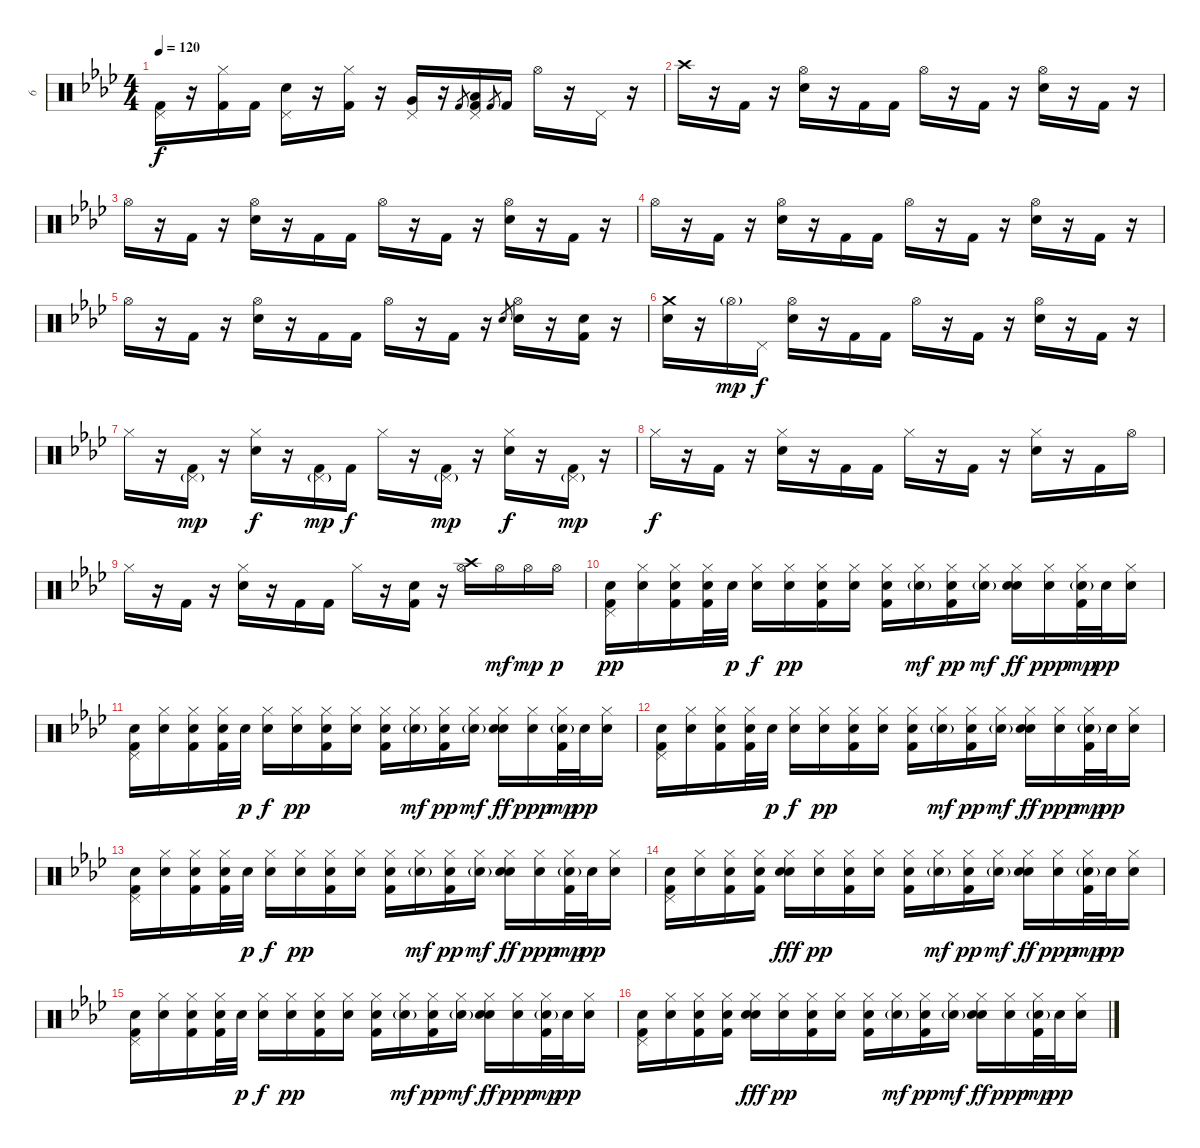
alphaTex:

\track ("6" "6") {instrument percussion}
\staff {score}
\articulation defaults
\ts (4 4)
\tempo 120
\clef neutral
\ks fminor
("Pedal Hi-Hat (hit)" "Kick (hit) 2").16{dy f} r.16 ("Hi-Hat (closed)" "Kick (hit) 2").16 "Kick (hit) 2".16 ("Pedal Hi-Hat (hit)" "Electric Snare (hit)").16 r.16 ("Hi-Hat (closed)" "Kick (hit) 2").16 r.16 ("Pedal Hi-Hat (hit)" "Very Low Tom (hit)").16 r.16 "Kick (hit) 2".8{gr} ("Pedal Hi-Hat (hit)" "Low Tom (hit)" "Kick (hit) 2").16 "Kick (hit) 2".8{gr} "Kick (hit) 2".16 "Hi-Hat (open)".16 r.16 "Pedal Hi-Hat (hit)".16 r.16 |
\ks ab "Crash high (hit)".16
r.16 "Kick (hit) 2".16 r.16 ("Hi-Hat (open)" "Electric Snare (hit)").16 r.16 "Kick (hit) 2".16 "Kick (hit) 2".16 "Hi-Hat (open)".16 r.16 "Kick (hit) 2".16 r.16 ("Hi-Hat (open)" "Electric Snare (hit)").16 r.16 "Kick (hit) 2".16 r.16 |
"Hi-Hat (open)".16 r.16 "Kick (hit) 2".16 r.16 ("Hi-Hat (open)" "Electric Snare (hit)").16 r.16 "Kick (hit) 2".16 "Kick (hit) 2".16 "Hi-Hat (open)".16 r.16 "Kick (hit) 2".16 r.16 ("Hi-Hat (open)" "Electric Snare (hit)").16 r.16 "Kick (hit) 2".16 r.16 |
"Hi-Hat (open)".16 r.16 "Kick (hit) 2".16 r.16 ("Hi-Hat (open)" "Electric Snare (hit)").16 r.16 "Kick (hit) 2".16 "Kick (hit) 2".16 "Hi-Hat (open)".16 r.16 "Kick (hit) 2".16 r.16 ("Hi-Hat (open)" "Electric Snare (hit)").16 r.16 "Kick (hit) 2".16 r.16 |
"Hi-Hat (open)".16 r.16 "Kick (hit) 2".16 r.16 ("Hi-Hat (open)" "Electric Snare (hit)").16 r.16 "Kick (hit) 2".16 "Kick (hit) 2".16 "Hi-Hat (open)".16 r.16 "Kick (hit) 2".16 r.16 "Electric Snare (hit)".8{gr} ("Hi-Hat (open)" "Electric Snare (hit)").16 r.16 ("Electric Snare (hit)" "Kick (hit) 2").16 r.16 |
("Crash medium (hit)" "Electric Snare (hit)").16 r.16 "Hi-Hat (open)"{g}.16{dy mp} "Pedal Hi-Hat (hit)".16{dy f} ("Hi-Hat (open)" "Electric Snare (hit)").16 r.16 "Kick (hit) 2".16 "Kick (hit) 2".16 "Hi-Hat (open)".16 r.16 "Kick (hit) 2".16 r.16 ("Hi-Hat (open)" "Electric Snare (hit)").16 r.16 "Kick (hit) 2".16 r.16 |
"Hi-Hat (closed)".16 r.16 ("Pedal Hi-Hat (hit)"{g} "Kick (hit) 2").16{dy mp} r.16 ("Hi-Hat (closed)" "Electric Snare (hit)").16{dy f} r.16 ("Pedal Hi-Hat (hit)"{g} "Kick (hit) 2").16{dy mp} "Kick (hit) 2".16{dy f} "Hi-Hat (closed)".16 r.16 ("Pedal Hi-Hat (hit)"{g} "Kick (hit) 2").16{dy mp} r.16 ("Hi-Hat (closed)" "Electric Snare (hit)").16{dy f} r.16 ("Pedal Hi-Hat (hit)"{g} "Kick (hit) 2").16{dy mp} r.16 |
"Hi-Hat (closed)".16{dy f} r.16 "Kick (hit) 2".16 r.16 ("Hi-Hat (closed)" "Electric Snare (hit)").16 r.16 "Kick (hit) 2".16 "Kick (hit) 2".16 "Hi-Hat (closed)".16 r.16 "Kick (hit) 2".16 r.16 ("Hi-Hat (closed)" "Electric Snare (hit)").16 r.16 "Kick (hit) 2".16 "Hi-Hat (open)".16 |
"Hi-Hat (closed)".16 r.16 "Kick (hit) 2".16 r.16 ("Hi-Hat (closed)" "Electric Snare (hit)").16 r.16 "Kick (hit) 2".16 "Kick (hit) 2".16 "Hi-Hat (closed)".16 r.16 ("Electric Snare (hit)" "Kick (hit) 2").16 r.16 ("Hi-Hat (open)" "Crash high (hit)").16 "Hi-Hat (open)".16{dy mf} "Hi-Hat (open)".16{dy mp} "Hi-Hat (open)".16{dy p} |
("Pedal Hi-Hat (hit)" "Electric Snare (hit)" "Kick (hit) 2").16{dy pp} ("Hi-Hat (closed)" "Electric Snare (hit)").16 ("Hi-Hat (closed)" "Electric Snare (hit)" "Kick (hit) 2").16 ("Hi-Hat (closed)" "Electric Snare (hit)" "Kick (hit) 2").32 "Electric Snare (hit)".32{dy p} ("Hi-Hat (closed)" "Electric Snare (hit)").16{dy f} ("Hi-Hat (closed)" "Electric Snare (hit)").16{dy pp} ("Hi-Hat (closed)" "Electric Snare (hit)" "Kick (hit) 2").16 ("Hi-Hat (closed)" "Electric Snare (hit)").16 ("Hi-Hat (closed)" "Electric Snare (hit)" "Kick (hit) 2").16 ("Hi-Hat (closed)" "Electric Snare (hit)"{g}).16{dy mf} ("Hi-Hat (closed)" "Electric Snare (hit)" "Kick (hit) 2").16{dy pp} ("Hi-Hat (closed)" "Electric Snare (hit)"{g}).16{dy mf} ("Hi-Hat (closed)" "Electric Snare (hit)" "Electric Snare (hit)").16{dy ff} ("Hi-Hat (closed)" "Electric Snare (hit)").16{dy ppp} ("Hi-Hat (closed)" "Electric Snare (hit)"{g} "Kick (hit) 2").32{dy mp} "Electric Snare (hit)".32{dy pp} ("Hi-Hat (closed)" "Electric Snare (hit)").16 |
("Pedal Hi-Hat (hit)" "Electric Snare (hit)" "Kick (hit) 2").16 ("Hi-Hat (closed)" "Electric Snare (hit)").16 ("Hi-Hat (closed)" "Electric Snare (hit)" "Kick (hit) 2").16 ("Hi-Hat (closed)" "Electric Snare (hit)" "Kick (hit) 2").32 "Electric Snare (hit)".32{dy p} ("Hi-Hat (closed)" "Electric Snare (hit)").16{dy f} ("Hi-Hat (closed)" "Electric Snare (hit)").16{dy pp} ("Hi-Hat (closed)" "Electric Snare (hit)" "Kick (hit) 2").16 ("Hi-Hat (closed)" "Electric Snare (hit)").16 ("Hi-Hat (closed)" "Electric Snare (hit)" "Kick (hit) 2").16 ("Hi-Hat (closed)" "Electric Snare (hit)"{g}).16{dy mf} ("Hi-Hat (closed)" "Electric Snare (hit)" "Kick (hit) 2").16{dy pp} ("Hi-Hat (closed)" "Electric Snare (hit)"{g}).16{dy mf} ("Hi-Hat (closed)" "Electric Snare (hit)" "Electric Snare (hit)").16{dy ff} ("Hi-Hat (closed)" "Electric Snare (hit)").16{dy ppp} ("Hi-Hat (closed)" "Electric Snare (hit)"{g} "Kick (hit) 2").32{dy mp} "Electric Snare (hit)".32{dy pp} ("Hi-Hat (closed)" "Electric Snare (hit)").16 |
("Pedal Hi-Hat (hit)" "Electric Snare (hit)" "Kick (hit) 2").16 ("Hi-Hat (closed)" "Electric Snare (hit)").16 ("Hi-Hat (closed)" "Electric Snare (hit)" "Kick (hit) 2").16 ("Hi-Hat (closed)" "Electric Snare (hit)" "Kick (hit) 2").32 "Electric Snare (hit)".32{dy p} ("Hi-Hat (closed)" "Electric Snare (hit)").16{dy f} ("Hi-Hat (closed)" "Electric Snare (hit)").16{dy pp} ("Hi-Hat (closed)" "Electric Snare (hit)" "Kick (hit) 2").16 ("Hi-Hat (closed)" "Electric Snare (hit)").16 ("Hi-Hat (closed)" "Electric Snare (hit)" "Kick (hit) 2").16 ("Hi-Hat (closed)" "Electric Snare (hit)"{g}).16{dy mf} ("Hi-Hat (closed)" "Electric Snare (hit)" "Kick (hit) 2").16{dy pp} ("Hi-Hat (closed)" "Electric Snare (hit)"{g}).16{dy mf} ("Hi-Hat (closed)" "Electric Snare (hit)" "Electric Snare (hit)").16{dy ff} ("Hi-Hat (closed)" "Electric Snare (hit)").16{dy ppp} ("Hi-Hat (closed)" "Electric Snare (hit)"{g} "Kick (hit) 2").32{dy mp} "Electric Snare (hit)".32{dy pp} ("Hi-Hat (closed)" "Electric Snare (hit)").16 |
("Pedal Hi-Hat (hit)" "Electric Snare (hit)" "Kick (hit) 2").16 ("Hi-Hat (closed)" "Electric Snare (hit)").16 ("Hi-Hat (closed)" "Electric Snare (hit)" "Kick (hit) 2").16 ("Hi-Hat (closed)" "Electric Snare (hit)" "Kick (hit) 2").32 "Electric Snare (hit)".32{dy p} ("Hi-Hat (closed)" "Electric Snare (hit)").16{dy f} ("Hi-Hat (closed)" "Electric Snare (hit)").16{dy pp} ("Hi-Hat (closed)" "Electric Snare (hit)" "Kick (hit) 2").16 ("Hi-Hat (closed)" "Electric Snare (hit)").16 ("Hi-Hat (closed)" "Electric Snare (hit)" "Kick (hit) 2").16 ("Hi-Hat (closed)" "Electric Snare (hit)"{g}).16{dy mf} ("Hi-Hat (closed)" "Electric Snare (hit)" "Kick (hit) 2").16{dy pp} ("Hi-Hat (closed)" "Electric Snare (hit)"{g}).16{dy mf} ("Hi-Hat (closed)" "Electric Snare (hit)" "Electric Snare (hit)").16{dy ff} ("Hi-Hat (closed)" "Electric Snare (hit)").16{dy ppp} ("Hi-Hat (closed)" "Electric Snare (hit)"{g} "Kick (hit) 2").32{dy mp} "Electric Snare (hit)".32{dy pp} ("Hi-Hat (closed)" "Electric Snare (hit)").16 |
("Pedal Hi-Hat (hit)" "Electric Snare (hit)" "Kick (hit) 2").16 ("Hi-Hat (closed)" "Electric Snare (hit)").16 ("Hi-Hat (closed)" "Electric Snare (hit)" "Kick (hit) 2").16 ("Hi-Hat (closed)" "Electric Snare (hit)" "Kick (hit) 2").16 ("Hi-Hat (closed)" "Electric Snare (hit)" "Electric Snare (hit)").16{dy fff} ("Hi-Hat (closed)" "Electric Snare (hit)").16{dy pp} ("Hi-Hat (closed)" "Electric Snare (hit)" "Kick (hit) 2").16 ("Hi-Hat (closed)" "Electric Snare (hit)").16 ("Hi-Hat (closed)" "Electric Snare (hit)" "Kick (hit) 2").16 ("Hi-Hat (closed)" "Electric Snare (hit)"{g}).16{dy mf} ("Hi-Hat (closed)" "Electric Snare (hit)" "Kick (hit) 2").16{dy pp} ("Hi-Hat (closed)" "Electric Snare (hit)"{g}).16{dy mf} ("Hi-Hat (closed)" "Electric Snare (hit)" "Electric Snare (hit)").16{dy ff} ("Hi-Hat (closed)" "Electric Snare (hit)").16{dy ppp} ("Hi-Hat (closed)" "Electric Snare (hit)"{g} "Kick (hit) 2").32{dy mp} "Electric Snare (hit)".32{dy pp} ("Hi-Hat (closed)" "Electric Snare (hit)").16 |
("Pedal Hi-Hat (hit)" "Electric Snare (hit)" "Kick (hit) 2").16 ("Hi-Hat (closed)" "Electric Snare (hit)").16 ("Hi-Hat (closed)" "Electric Snare (hit)" "Kick (hit) 2").16 ("Hi-Hat (closed)" "Electric Snare (hit)" "Kick (hit) 2").32 "Electric Snare (hit)".32{dy p} ("Hi-Hat (closed)" "Electric Snare (hit)").16{dy f} ("Hi-Hat (closed)" "Electric Snare (hit)").16{dy pp} ("Hi-Hat (closed)" "Electric Snare (hit)" "Kick (hit) 2").16 ("Hi-Hat (closed)" "Electric Snare (hit)").16 ("Hi-Hat (closed)" "Electric Snare (hit)" "Kick (hit) 2").16 ("Hi-Hat (closed)" "Electric Snare (hit)"{g}).16{dy mf} ("Hi-Hat (closed)" "Electric Snare (hit)" "Kick (hit) 2").16{dy pp} ("Hi-Hat (closed)" "Electric Snare (hit)"{g}).16{dy mf} ("Hi-Hat (closed)" "Electric Snare (hit)" "Electric Snare (hit)").16{dy ff} ("Hi-Hat (closed)" "Electric Snare (hit)").16{dy ppp} ("Hi-Hat (closed)" "Electric Snare (hit)"{g} "Kick (hit) 2").32{dy mp} "Electric Snare (hit)".32{dy pp} ("Hi-Hat (closed)" "Electric Snare (hit)").16 |
("Pedal Hi-Hat (hit)" "Electric Snare (hit)" "Kick (hit) 2").16 ("Hi-Hat (closed)" "Electric Snare (hit)").16 ("Hi-Hat (closed)" "Electric Snare (hit)" "Kick (hit) 2").16 ("Hi-Hat (closed)" "Electric Snare (hit)" "Kick (hit) 2").16 ("Hi-Hat (closed)" "Electric Snare (hit)" "Electric Snare (hit)").16{dy fff} ("Hi-Hat (closed)" "Electric Snare (hit)").16{dy pp} ("Hi-Hat (closed)" "Electric Snare (hit)" "Kick (hit) 2").16 ("Hi-Hat (closed)" "Electric Snare (hit)").16 ("Hi-Hat (closed)" "Electric Snare (hit)" "Kick (hit) 2").16 ("Hi-Hat (closed)" "Electric Snare (hit)"{g}).16{dy mf} ("Hi-Hat (closed)" "Electric Snare (hit)" "Kick (hit) 2").16{dy pp} ("Hi-Hat (closed)" "Electric Snare (hit)"{g}).16{dy mf} ("Hi-Hat (closed)" "Electric Snare (hit)" "Electric Snare (hit)").16{dy ff} ("Hi-Hat (closed)" "Electric Snare (hit)").16{dy ppp} ("Hi-Hat (closed)" "Electric Snare (hit)"{g} "Kick (hit) 2").32{dy mp} "Electric Snare (hit)".32{dy pp} ("Hi-Hat (closed)" "Electric Snare (hit)").16
